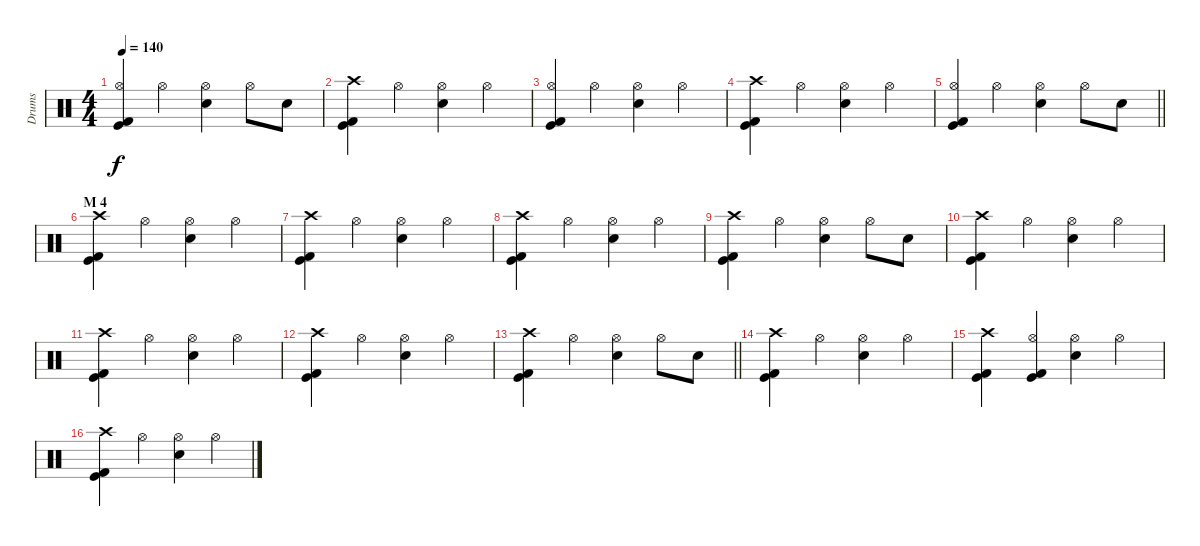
\track ("Drums" "Drums") {instrument percussion}
\staff {score}
\articulation defaults
\ts (4 4)
\tempo 140
\clef neutral
\ks c
("Kick (hit)" "Hi-Hat (open)" "Kick (hit) 2").4{dy f} "Hi-Hat (open)".4 ("Snare (hit) 2" "Hi-Hat (open)").4 "Hi-Hat (open)".8 "Snare (hit) 2".8 |
("Crash high (hit)" "Kick (hit)" "Kick (hit) 2").4 "Hi-Hat (open)".4 ("Hi-Hat (open)" "Snare (hit) 2").4 "Hi-Hat (open)".4 |
("Hi-Hat (open)" "Kick (hit)" "Kick (hit) 2").4 "Hi-Hat (open)".4 ("Hi-Hat (open)" "Snare (hit) 2").4 "Hi-Hat (open)".4 |
("Crash high (hit)" "Kick (hit)" "Kick (hit) 2").4 "Hi-Hat (open)".4 ("Hi-Hat (open)" "Snare (hit) 2").4 "Hi-Hat (open)".4 |
\barLineRight lightlight
("Hi-Hat (open)" "Kick (hit)" "Kick (hit) 2").4 "Hi-Hat (open)".4 ("Hi-Hat (open)" "Snare (hit) 2").4 "Hi-Hat (open)".8 "Snare (hit) 2".8 |
\section ("" "M 4")
("Crash high (hit)" "Kick (hit)" "Kick (hit) 2").4 "Hi-Hat (open)".4 ("Hi-Hat (open)" "Snare (hit) 2").4 "Hi-Hat (open)".4 |
("Crash high (hit)" "Kick (hit)" "Kick (hit) 2").4 "Hi-Hat (open)".4 ("Hi-Hat (open)" "Snare (hit) 2").4 "Hi-Hat (open)".4 |
("Crash high (hit)" "Kick (hit)" "Kick (hit) 2").4 "Hi-Hat (open)".4 ("Hi-Hat (open)" "Snare (hit) 2").4 "Hi-Hat (open)".4 |
("Crash high (hit)" "Kick (hit)" "Kick (hit) 2").4 "Hi-Hat (open)".4 ("Hi-Hat (open)" "Snare (hit) 2").4 "Hi-Hat (open)".8 "Snare (hit) 2".8 |
("Crash high (hit)" "Kick (hit)" "Kick (hit) 2").4 "Hi-Hat (open)".4 ("Hi-Hat (open)" "Snare (hit) 2").4 "Hi-Hat (open)".4 |
("Crash high (hit)" "Kick (hit)" "Kick (hit) 2").4 "Hi-Hat (open)".4 ("Hi-Hat (open)" "Snare (hit) 2").4 "Hi-Hat (open)".4 |
("Crash high (hit)" "Kick (hit)" "Kick (hit) 2").4 "Hi-Hat (open)".4 ("Hi-Hat (open)" "Snare (hit) 2").4 "Hi-Hat (open)".4 |
\barLineRight lightlight
("Crash high (hit)" "Kick (hit)" "Kick (hit) 2").4 "Hi-Hat (open)".4 ("Hi-Hat (open)" "Snare (hit) 2").4 "Hi-Hat (open)".8 "Snare (hit) 2".8 |
("Crash high (hit)" "Kick (hit)" "Kick (hit) 2").4 "Hi-Hat (open)".4 ("Hi-Hat (open)" "Snare (hit) 2").4 "Hi-Hat (open)".4 |
("Crash high (hit)" "Kick (hit)" "Kick (hit) 2").4 ("Hi-Hat (open)" "Kick (hit)" "Kick (hit) 2").4 ("Hi-Hat (open)" "Snare (hit) 2").4 "Hi-Hat (open)".4 |
("Crash high (hit)" "Kick (hit)" "Kick (hit) 2").4 "Hi-Hat (open)".4 ("Hi-Hat (open)" "Snare (hit) 2").4 "Hi-Hat (open)".4
